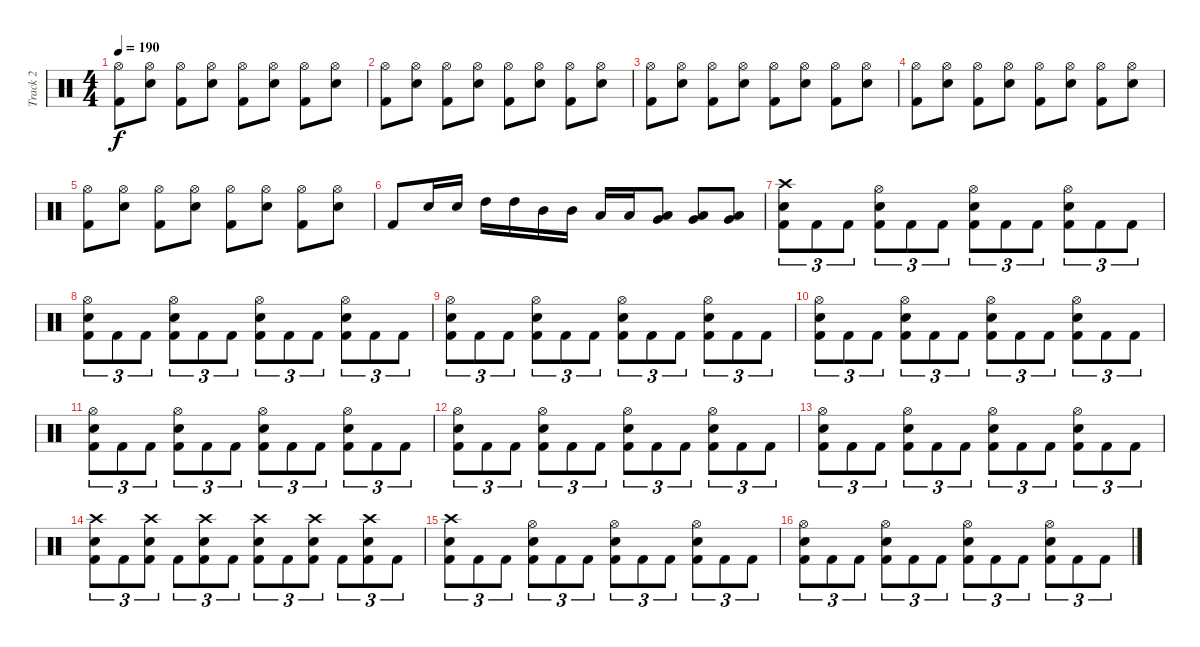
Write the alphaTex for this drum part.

\track ("Track 2" "Track 2") {instrument percussion}
\staff {score}
\articulation defaults
\ts (4 4)
\tempo 190
\clef neutral
\ks c
("Hi-Hat (open)" "Kick (hit) 2").8{dy f} ("Hi-Hat (open)" "Snare (hit) 2").8 ("Hi-Hat (open)" "Kick (hit) 2").8 ("Hi-Hat (open)" "Snare (hit) 2").8 ("Hi-Hat (open)" "Kick (hit) 2").8 ("Hi-Hat (open)" "Snare (hit) 2").8 ("Hi-Hat (open)" "Kick (hit) 2").8 ("Hi-Hat (open)" "Snare (hit) 2").8 |
("Hi-Hat (open)" "Kick (hit) 2").8 ("Hi-Hat (open)" "Snare (hit) 2").8 ("Hi-Hat (open)" "Kick (hit) 2").8 ("Hi-Hat (open)" "Snare (hit) 2").8 ("Hi-Hat (open)" "Kick (hit) 2").8 ("Hi-Hat (open)" "Snare (hit) 2").8 ("Hi-Hat (open)" "Kick (hit) 2").8 ("Hi-Hat (open)" "Snare (hit) 2").8 |
("Hi-Hat (open)" "Kick (hit) 2").8 ("Hi-Hat (open)" "Snare (hit) 2").8 ("Hi-Hat (open)" "Kick (hit) 2").8 ("Hi-Hat (open)" "Snare (hit) 2").8 ("Hi-Hat (open)" "Kick (hit) 2").8 ("Hi-Hat (open)" "Snare (hit) 2").8 ("Hi-Hat (open)" "Kick (hit) 2").8 ("Hi-Hat (open)" "Snare (hit) 2").8 |
("Hi-Hat (open)" "Kick (hit) 2").8 ("Hi-Hat (open)" "Snare (hit) 2").8 ("Hi-Hat (open)" "Kick (hit) 2").8 ("Hi-Hat (open)" "Snare (hit) 2").8 ("Hi-Hat (open)" "Kick (hit) 2").8 ("Hi-Hat (open)" "Snare (hit) 2").8 ("Hi-Hat (open)" "Kick (hit) 2").8 ("Hi-Hat (open)" "Snare (hit) 2").8 |
("Hi-Hat (open)" "Kick (hit) 2").8 ("Hi-Hat (open)" "Snare (hit) 2").8 ("Hi-Hat (open)" "Kick (hit) 2").8 ("Hi-Hat (open)" "Snare (hit) 2").8 ("Hi-Hat (open)" "Kick (hit) 2").8 ("Hi-Hat (open)" "Snare (hit) 2").8 ("Hi-Hat (open)" "Kick (hit) 2").8 ("Hi-Hat (open)" "Snare (hit) 2").8 |
"Kick (hit) 2".8 "Snare (hit) 2".16 "Snare (hit) 2".16 "High Tom (hit)".16 "High Tom (hit)".16 "Mid Tom (hit)".16 "Mid Tom (hit)".16 "Low Tom (hit)".16 "Low Tom (hit)".16 ("Low Tom (hit)" "Very Low Tom (hit)").8 ("Low Tom (hit)" "Very Low Tom (hit)").8 ("Low Tom (hit)" "Very Low Tom (hit)").8 |
("Crash high (hit)" "Snare (hit) 2" "Kick (hit) 2").8{tu (3 2)} "Kick (hit) 2".8{tu (3 2)} "Kick (hit) 2".8{tu (3 2)} ("Hi-Hat (open)" "Snare (hit) 2" "Kick (hit) 2").8{tu (3 2)} "Kick (hit) 2".8{tu (3 2)} "Kick (hit) 2".8{tu (3 2)} ("Hi-Hat (open)" "Snare (hit) 2" "Kick (hit) 2").8{tu (3 2)} "Kick (hit) 2".8{tu (3 2)} "Kick (hit) 2".8{tu (3 2)} ("Hi-Hat (open)" "Snare (hit) 2" "Kick (hit) 2").8{tu (3 2)} "Kick (hit) 2".8{tu (3 2)} "Kick (hit) 2".8{tu (3 2)} |
("Hi-Hat (open)" "Snare (hit) 2" "Kick (hit) 2").8{tu (3 2)} "Kick (hit) 2".8{tu (3 2)} "Kick (hit) 2".8{tu (3 2)} ("Hi-Hat (open)" "Snare (hit) 2" "Kick (hit) 2").8{tu (3 2)} "Kick (hit) 2".8{tu (3 2)} "Kick (hit) 2".8{tu (3 2)} ("Hi-Hat (open)" "Snare (hit) 2" "Kick (hit) 2").8{tu (3 2)} "Kick (hit) 2".8{tu (3 2)} "Kick (hit) 2".8{tu (3 2)} ("Hi-Hat (open)" "Snare (hit) 2" "Kick (hit) 2").8{tu (3 2)} "Kick (hit) 2".8{tu (3 2)} "Kick (hit) 2".8{tu (3 2)} |
("Hi-Hat (open)" "Snare (hit) 2" "Kick (hit) 2").8{tu (3 2)} "Kick (hit) 2".8{tu (3 2)} "Kick (hit) 2".8{tu (3 2)} ("Hi-Hat (open)" "Snare (hit) 2" "Kick (hit) 2").8{tu (3 2)} "Kick (hit) 2".8{tu (3 2)} "Kick (hit) 2".8{tu (3 2)} ("Hi-Hat (open)" "Snare (hit) 2" "Kick (hit) 2").8{tu (3 2)} "Kick (hit) 2".8{tu (3 2)} "Kick (hit) 2".8{tu (3 2)} ("Hi-Hat (open)" "Snare (hit) 2" "Kick (hit) 2").8{tu (3 2)} "Kick (hit) 2".8{tu (3 2)} "Kick (hit) 2".8{tu (3 2)} |
("Hi-Hat (open)" "Snare (hit) 2" "Kick (hit) 2").8{tu (3 2)} "Kick (hit) 2".8{tu (3 2)} "Kick (hit) 2".8{tu (3 2)} ("Hi-Hat (open)" "Snare (hit) 2" "Kick (hit) 2").8{tu (3 2)} "Kick (hit) 2".8{tu (3 2)} "Kick (hit) 2".8{tu (3 2)} ("Hi-Hat (open)" "Snare (hit) 2" "Kick (hit) 2").8{tu (3 2)} "Kick (hit) 2".8{tu (3 2)} "Kick (hit) 2".8{tu (3 2)} ("Hi-Hat (open)" "Snare (hit) 2" "Kick (hit) 2").8{tu (3 2)} "Kick (hit) 2".8{tu (3 2)} "Kick (hit) 2".8{tu (3 2)} |
("Hi-Hat (open)" "Snare (hit) 2" "Kick (hit) 2").8{tu (3 2)} "Kick (hit) 2".8{tu (3 2)} "Kick (hit) 2".8{tu (3 2)} ("Hi-Hat (open)" "Snare (hit) 2" "Kick (hit) 2").8{tu (3 2)} "Kick (hit) 2".8{tu (3 2)} "Kick (hit) 2".8{tu (3 2)} ("Hi-Hat (open)" "Snare (hit) 2" "Kick (hit) 2").8{tu (3 2)} "Kick (hit) 2".8{tu (3 2)} "Kick (hit) 2".8{tu (3 2)} ("Hi-Hat (open)" "Snare (hit) 2" "Kick (hit) 2").8{tu (3 2)} "Kick (hit) 2".8{tu (3 2)} "Kick (hit) 2".8{tu (3 2)} |
("Hi-Hat (open)" "Snare (hit) 2" "Kick (hit) 2").8{tu (3 2)} "Kick (hit) 2".8{tu (3 2)} "Kick (hit) 2".8{tu (3 2)} ("Hi-Hat (open)" "Snare (hit) 2" "Kick (hit) 2").8{tu (3 2)} "Kick (hit) 2".8{tu (3 2)} "Kick (hit) 2".8{tu (3 2)} ("Hi-Hat (open)" "Snare (hit) 2" "Kick (hit) 2").8{tu (3 2)} "Kick (hit) 2".8{tu (3 2)} "Kick (hit) 2".8{tu (3 2)} ("Hi-Hat (open)" "Snare (hit) 2" "Kick (hit) 2").8{tu (3 2)} "Kick (hit) 2".8{tu (3 2)} "Kick (hit) 2".8{tu (3 2)} |
("Hi-Hat (open)" "Snare (hit) 2" "Kick (hit) 2").8{tu (3 2)} "Kick (hit) 2".8{tu (3 2)} "Kick (hit) 2".8{tu (3 2)} ("Hi-Hat (open)" "Snare (hit) 2" "Kick (hit) 2").8{tu (3 2)} "Kick (hit) 2".8{tu (3 2)} "Kick (hit) 2".8{tu (3 2)} ("Hi-Hat (open)" "Snare (hit) 2" "Kick (hit) 2").8{tu (3 2)} "Kick (hit) 2".8{tu (3 2)} "Kick (hit) 2".8{tu (3 2)} ("Hi-Hat (open)" "Snare (hit) 2" "Kick (hit) 2").8{tu (3 2)} "Kick (hit) 2".8{tu (3 2)} "Kick (hit) 2".8{tu (3 2)} |
("Crash high (hit)" "Snare (hit) 2" "Kick (hit) 2").8{tu (3 2)} "Kick (hit) 2".8{tu (3 2)} ("Crash high (hit)" "Snare (hit) 2" "Kick (hit) 2").8{tu (3 2)} "Kick (hit) 2".8{tu (3 2)} ("Crash high (hit)" "Snare (hit) 2" "Kick (hit) 2").8{tu (3 2)} "Kick (hit) 2".8{tu (3 2)} ("Crash high (hit)" "Snare (hit) 2" "Kick (hit) 2").8{tu (3 2)} "Kick (hit) 2".8{tu (3 2)} ("Crash high (hit)" "Snare (hit) 2" "Kick (hit) 2").8{tu (3 2)} "Kick (hit) 2".8{tu (3 2)} ("Crash high (hit)" "Snare (hit) 2" "Kick (hit) 2").8{tu (3 2)} "Kick (hit) 2".8{tu (3 2)} |
("Crash high (hit)" "Snare (hit) 2" "Kick (hit) 2").8{tu (3 2)} "Kick (hit) 2".8{tu (3 2)} "Kick (hit) 2".8{tu (3 2)} ("Hi-Hat (open)" "Snare (hit) 2" "Kick (hit) 2").8{tu (3 2)} "Kick (hit) 2".8{tu (3 2)} "Kick (hit) 2".8{tu (3 2)} ("Hi-Hat (open)" "Snare (hit) 2" "Kick (hit) 2").8{tu (3 2)} "Kick (hit) 2".8{tu (3 2)} "Kick (hit) 2".8{tu (3 2)} ("Hi-Hat (open)" "Snare (hit) 2" "Kick (hit) 2").8{tu (3 2)} "Kick (hit) 2".8{tu (3 2)} "Kick (hit) 2".8{tu (3 2)} |
("Hi-Hat (open)" "Snare (hit) 2" "Kick (hit) 2").8{tu (3 2)} "Kick (hit) 2".8{tu (3 2)} "Kick (hit) 2".8{tu (3 2)} ("Hi-Hat (open)" "Snare (hit) 2" "Kick (hit) 2").8{tu (3 2)} "Kick (hit) 2".8{tu (3 2)} "Kick (hit) 2".8{tu (3 2)} ("Hi-Hat (open)" "Snare (hit) 2" "Kick (hit) 2").8{tu (3 2)} "Kick (hit) 2".8{tu (3 2)} "Kick (hit) 2".8{tu (3 2)} ("Hi-Hat (open)" "Snare (hit) 2" "Kick (hit) 2").8{tu (3 2)} "Kick (hit) 2".8{tu (3 2)} "Kick (hit) 2".8{tu (3 2)}
